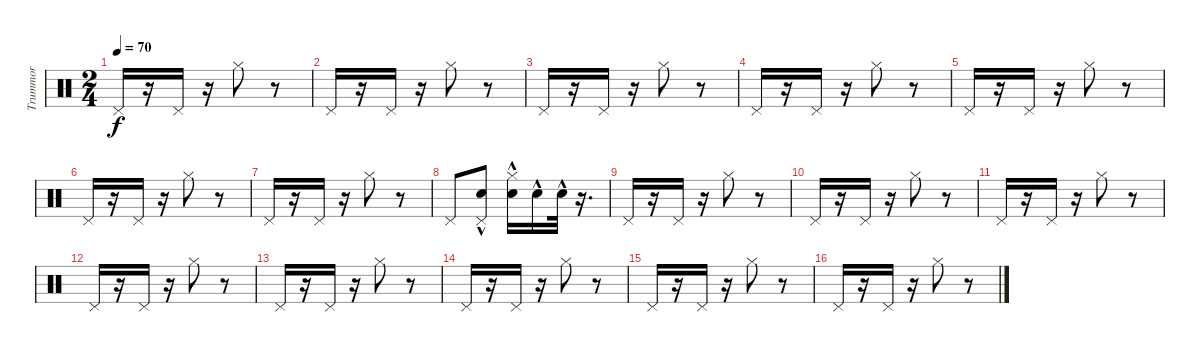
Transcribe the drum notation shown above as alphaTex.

\track ("Trummor" "Trummor") {instrument percussion}
\staff {score}
\articulation defaults
\ts (2 4)
\tempo 70
\clef neutral
\ks c "Pedal Hi-Hat (hit)".16{dy f}
r.16 "Pedal Hi-Hat (hit)".16 r.16 "Hi-Hat (closed)".8 r.8 |
"Pedal Hi-Hat (hit)".16 r.16 "Pedal Hi-Hat (hit)".16 r.16 "Hi-Hat (closed)".8 r.8 |
"Pedal Hi-Hat (hit)".16 r.16 "Pedal Hi-Hat (hit)".16 r.16 "Hi-Hat (closed)".8 r.8 |
"Pedal Hi-Hat (hit)".16 r.16 "Pedal Hi-Hat (hit)".16 r.16 "Hi-Hat (closed)".8 r.8 |
"Pedal Hi-Hat (hit)".16 r.16 "Pedal Hi-Hat (hit)".16 r.16 "Hi-Hat (closed)".8 r.8 |
"Pedal Hi-Hat (hit)".16 r.16 "Pedal Hi-Hat (hit)".16 r.16 "Hi-Hat (closed)".8 r.8 |
"Pedal Hi-Hat (hit)".16 r.16 "Pedal Hi-Hat (hit)".16 r.16 "Hi-Hat (closed)".8 r.8 |
"Pedal Hi-Hat (hit)".8 ("Pedal Hi-Hat (hit)" "Snare (hit) 2"{hac}).8 ("Hi-Hat (closed)" "Snare (hit) 2"{hac}).16 "Snare (hit) 2"{hac}.16 "Snare (hit) 2"{hac}.32 r.16{d} |
"Pedal Hi-Hat (hit)".16 r.16 "Pedal Hi-Hat (hit)".16 r.16 "Hi-Hat (closed)".8 r.8 |
"Pedal Hi-Hat (hit)".16 r.16 "Pedal Hi-Hat (hit)".16 r.16 "Hi-Hat (closed)".8 r.8 |
"Pedal Hi-Hat (hit)".16 r.16 "Pedal Hi-Hat (hit)".16 r.16 "Hi-Hat (closed)".8 r.8 |
"Pedal Hi-Hat (hit)".16 r.16 "Pedal Hi-Hat (hit)".16 r.16 "Hi-Hat (closed)".8 r.8 |
"Pedal Hi-Hat (hit)".16 r.16 "Pedal Hi-Hat (hit)".16 r.16 "Hi-Hat (closed)".8 r.8 |
"Pedal Hi-Hat (hit)".16 r.16 "Pedal Hi-Hat (hit)".16 r.16 "Hi-Hat (closed)".8 r.8 |
"Pedal Hi-Hat (hit)".16 r.16 "Pedal Hi-Hat (hit)".16 r.16 "Hi-Hat (closed)".8 r.8 |
"Pedal Hi-Hat (hit)".16 r.16 "Pedal Hi-Hat (hit)".16 r.16 "Hi-Hat (closed)".8 r.8
